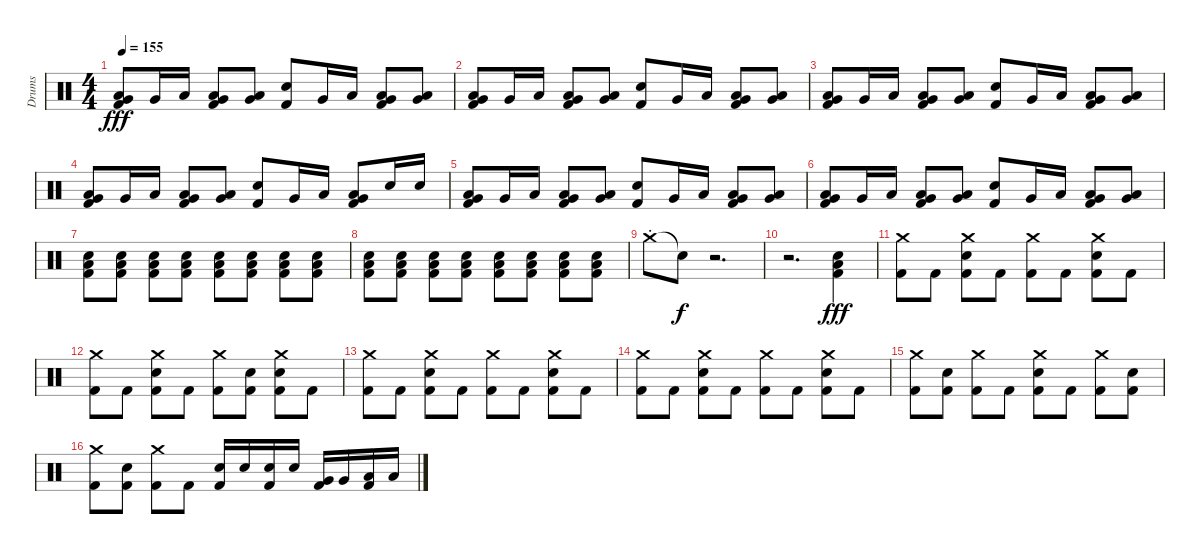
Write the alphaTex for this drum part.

\track ("Drums" "Drums") {instrument percussion}
\staff {score}
\articulation defaults
\ts (4 4)
\tempo 155
\clef neutral
\ks c
("Very Low Tom (hit)" "Low Floor Tom (hit)" "Kick (hit) 2").8{dy fff} "Very Low Tom (hit)".16 "Low Floor Tom (hit)".16 ("Very Low Tom (hit)" "Low Floor Tom (hit)" "Kick (hit) 2").8 ("Very Low Tom (hit)" "Low Floor Tom (hit)").8 ("Electric Snare (hit)" "Kick (hit) 2").8 "Very Low Tom (hit)".16 "Low Floor Tom (hit)".16 ("Very Low Tom (hit)" "Low Floor Tom (hit)" "Kick (hit) 2").8 ("Very Low Tom (hit)" "Low Floor Tom (hit)").8 |
("Very Low Tom (hit)" "Low Floor Tom (hit)" "Kick (hit) 2").8 "Very Low Tom (hit)".16 "Low Floor Tom (hit)".16 ("Very Low Tom (hit)" "Low Floor Tom (hit)" "Kick (hit) 2").8 ("Very Low Tom (hit)" "Low Floor Tom (hit)").8 ("Electric Snare (hit)" "Kick (hit) 2").8 "Very Low Tom (hit)".16 "Low Floor Tom (hit)".16 ("Very Low Tom (hit)" "Low Floor Tom (hit)" "Kick (hit) 2").8 ("Very Low Tom (hit)" "Low Floor Tom (hit)").8 |
("Very Low Tom (hit)" "Low Floor Tom (hit)" "Kick (hit) 2").8 "Very Low Tom (hit)".16 "Low Floor Tom (hit)".16 ("Very Low Tom (hit)" "Low Floor Tom (hit)" "Kick (hit) 2").8 ("Very Low Tom (hit)" "Low Floor Tom (hit)").8 ("Electric Snare (hit)" "Kick (hit) 2").8 "Very Low Tom (hit)".16 "Low Floor Tom (hit)".16 ("Very Low Tom (hit)" "Low Floor Tom (hit)" "Kick (hit) 2").8 ("Very Low Tom (hit)" "Low Floor Tom (hit)").8 |
("Very Low Tom (hit)" "Low Floor Tom (hit)" "Kick (hit) 2").8 "Very Low Tom (hit)".16 "Low Floor Tom (hit)".16 ("Very Low Tom (hit)" "Low Floor Tom (hit)" "Kick (hit) 2").8 ("Very Low Tom (hit)" "Low Floor Tom (hit)").8 ("Electric Snare (hit)" "Kick (hit) 2").8 "Very Low Tom (hit)".16 "Low Floor Tom (hit)".16 ("Very Low Tom (hit)" "Low Floor Tom (hit)" "Kick (hit) 2").8 "Electric Snare (hit)".16 "Electric Snare (hit)".16 |
("Very Low Tom (hit)" "Low Floor Tom (hit)" "Kick (hit) 2").8 "Very Low Tom (hit)".16 "Low Floor Tom (hit)".16 ("Very Low Tom (hit)" "Low Floor Tom (hit)" "Kick (hit) 2").8 ("Very Low Tom (hit)" "Low Floor Tom (hit)").8 ("Electric Snare (hit)" "Kick (hit) 2").8 "Very Low Tom (hit)".16 "Low Floor Tom (hit)".16 ("Very Low Tom (hit)" "Low Floor Tom (hit)" "Kick (hit) 2").8 ("Very Low Tom (hit)" "Low Floor Tom (hit)").8 |
("Very Low Tom (hit)" "Low Floor Tom (hit)" "Kick (hit) 2").8 "Very Low Tom (hit)".16 "Low Floor Tom (hit)".16 ("Very Low Tom (hit)" "Low Floor Tom (hit)" "Kick (hit) 2").8 ("Very Low Tom (hit)" "Low Floor Tom (hit)").8 ("Electric Snare (hit)" "Kick (hit) 2").8 "Very Low Tom (hit)".16 "Low Floor Tom (hit)".16 ("Very Low Tom (hit)" "Low Floor Tom (hit)" "Kick (hit) 2").8 ("Very Low Tom (hit)" "Low Floor Tom (hit)").8 |
("Low Floor Tom (hit)" "Electric Snare (hit)" "Kick (hit) 2").8 ("Low Floor Tom (hit)" "Electric Snare (hit)" "Kick (hit) 2").8 ("Low Floor Tom (hit)" "Electric Snare (hit)" "Kick (hit) 2").8 ("Low Floor Tom (hit)" "Electric Snare (hit)" "Kick (hit) 2").8 ("Low Floor Tom (hit)" "Electric Snare (hit)" "Kick (hit) 2").8 ("Low Floor Tom (hit)" "Electric Snare (hit)" "Kick (hit) 2").8 ("Low Floor Tom (hit)" "Electric Snare (hit)" "Kick (hit) 2").8 ("Low Floor Tom (hit)" "Electric Snare (hit)" "Kick (hit) 2").8 |
("Low Floor Tom (hit)" "Electric Snare (hit)" "Kick (hit) 2").8 ("Low Floor Tom (hit)" "Electric Snare (hit)" "Kick (hit) 2").8 ("Low Floor Tom (hit)" "Electric Snare (hit)" "Kick (hit) 2").8 ("Low Floor Tom (hit)" "Electric Snare (hit)" "Kick (hit) 2").8 ("Low Floor Tom (hit)" "Electric Snare (hit)" "Kick (hit) 2").8 ("Low Floor Tom (hit)" "Electric Snare (hit)" "Kick (hit) 2").8 ("Low Floor Tom (hit)" "Electric Snare (hit)" "Kick (hit) 2").8 ("Low Floor Tom (hit)" "Electric Snare (hit)" "Kick (hit) 2").8 |
"Crash medium (hit)"{st}.8 "Snare (hit)"{t}.8{dy f volume 0} r.2{d} |
r.2{d volume 16} ("Low Floor Tom (hit)" "Electric Snare (hit)" "Kick (hit) 2").4{dy fff} |
("Crash medium (hit)" "Kick (hit) 2").8 "Kick (hit) 2".8 ("Crash medium (hit)" "Electric Snare (hit)" "Kick (hit) 2").8 "Kick (hit) 2".8 ("Crash medium (hit)" "Kick (hit) 2").8 "Kick (hit) 2".8 ("Crash medium (hit)" "Electric Snare (hit)" "Kick (hit) 2").8 "Kick (hit) 2".8 |
("Crash medium (hit)" "Kick (hit) 2").8 "Kick (hit) 2".8 ("Crash medium (hit)" "Electric Snare (hit)" "Kick (hit) 2").8 "Kick (hit) 2".8 ("Crash medium (hit)" "Kick (hit) 2").8 ("Electric Snare (hit)" "Kick (hit) 2").8 ("Crash medium (hit)" "Electric Snare (hit)" "Kick (hit) 2").8 "Kick (hit) 2".8 |
("Crash medium (hit)" "Kick (hit) 2").8 "Kick (hit) 2".8 ("Crash medium (hit)" "Electric Snare (hit)" "Kick (hit) 2").8 "Kick (hit) 2".8 ("Crash medium (hit)" "Kick (hit) 2").8 "Kick (hit) 2".8 ("Crash medium (hit)" "Electric Snare (hit)" "Kick (hit) 2").8 "Kick (hit) 2".8 |
("Crash medium (hit)" "Kick (hit) 2").8 "Kick (hit) 2".8 ("Crash medium (hit)" "Electric Snare (hit)" "Kick (hit) 2").8 "Kick (hit) 2".8 ("Crash medium (hit)" "Kick (hit) 2").8 "Kick (hit) 2".8 ("Crash medium (hit)" "Electric Snare (hit)" "Kick (hit) 2").8 "Kick (hit) 2".8 |
("Crash medium (hit)" "Kick (hit) 2").8 ("Electric Snare (hit)" "Kick (hit) 2").8 ("Crash medium (hit)" "Kick (hit) 2").8 "Kick (hit) 2".8 ("Crash medium (hit)" "Electric Snare (hit)" "Kick (hit) 2").8 "Kick (hit) 2".8 ("Crash medium (hit)" "Kick (hit) 2").8 ("Electric Snare (hit)" "Kick (hit) 2").8 |
("Crash medium (hit)" "Kick (hit) 2").8 ("Electric Snare (hit)" "Kick (hit) 2").8 ("Crash medium (hit)" "Kick (hit) 2").8 "Kick (hit) 2".8 ("Electric Snare (hit)" "Kick (hit) 2").16 "Electric Snare (hit)".16 ("Electric Snare (hit)" "Kick (hit) 2").16 "Electric Snare (hit)".16 ("Very Low Tom (hit)" "Kick (hit) 2").16 "Very Low Tom (hit)".16 ("Low Floor Tom (hit)" "Kick (hit) 2").16 "Low Floor Tom (hit)".16
